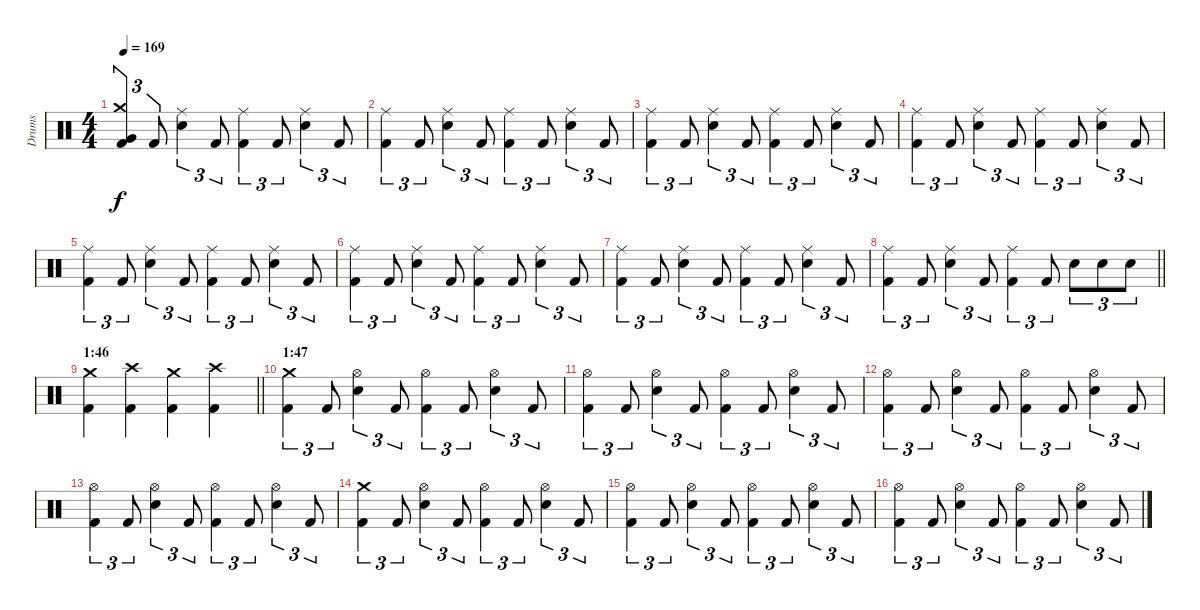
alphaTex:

\track ("Drums" "Drums") {instrument percussion}
\staff {score}
\articulation defaults
\ts (4 4)
\tempo 169
\clef neutral
\ks c
("Very Low Tom (hit)" "Crash medium (hit)" "Kick (hit) 2").4{tu (3 2) dy f} "Kick (hit) 2".8{tu (3 2)} ("Ride (middle)" "Snare (hit) 2").4{tu (3 2)} "Kick (hit) 2".8{tu (3 2)} ("Ride (middle)" "Kick (hit) 2").4{tu (3 2)} "Kick (hit) 2".8{tu (3 2)} ("Ride (middle)" "Snare (hit) 2").4{tu (3 2)} "Kick (hit) 2".8{tu (3 2)} |
("Ride (middle)" "Kick (hit) 2").4{tu (3 2)} "Kick (hit) 2".8{tu (3 2)} ("Ride (middle)" "Snare (hit) 2").4{tu (3 2)} "Kick (hit) 2".8{tu (3 2)} ("Ride (middle)" "Kick (hit) 2").4{tu (3 2)} "Kick (hit) 2".8{tu (3 2)} ("Ride (middle)" "Snare (hit) 2").4{tu (3 2)} "Kick (hit) 2".8{tu (3 2)} |
("Ride (middle)" "Kick (hit) 2").4{tu (3 2)} "Kick (hit) 2".8{tu (3 2)} ("Ride (middle)" "Snare (hit) 2").4{tu (3 2)} "Kick (hit) 2".8{tu (3 2)} ("Ride (middle)" "Kick (hit) 2").4{tu (3 2)} "Kick (hit) 2".8{tu (3 2)} ("Ride (middle)" "Snare (hit) 2").4{tu (3 2)} "Kick (hit) 2".8{tu (3 2)} |
("Ride (middle)" "Kick (hit) 2").4{tu (3 2)} "Kick (hit) 2".8{tu (3 2)} ("Ride (middle)" "Snare (hit) 2").4{tu (3 2)} "Kick (hit) 2".8{tu (3 2)} ("Ride (middle)" "Kick (hit) 2").4{tu (3 2)} "Kick (hit) 2".8{tu (3 2)} ("Ride (middle)" "Snare (hit) 2").4{tu (3 2)} "Kick (hit) 2".8{tu (3 2)} |
("Ride (middle)" "Kick (hit) 2").4{tu (3 2)} "Kick (hit) 2".8{tu (3 2)} ("Ride (middle)" "Snare (hit) 2").4{tu (3 2)} "Kick (hit) 2".8{tu (3 2)} ("Ride (middle)" "Kick (hit) 2").4{tu (3 2)} "Kick (hit) 2".8{tu (3 2)} ("Ride (middle)" "Snare (hit) 2").4{tu (3 2)} "Kick (hit) 2".8{tu (3 2)} |
("Ride (middle)" "Kick (hit) 2").4{tu (3 2)} "Kick (hit) 2".8{tu (3 2)} ("Ride (middle)" "Snare (hit) 2").4{tu (3 2)} "Kick (hit) 2".8{tu (3 2)} ("Ride (middle)" "Kick (hit) 2").4{tu (3 2)} "Kick (hit) 2".8{tu (3 2)} ("Ride (middle)" "Snare (hit) 2").4{tu (3 2)} "Kick (hit) 2".8{tu (3 2)} |
("Ride (middle)" "Kick (hit) 2").4{tu (3 2)} "Kick (hit) 2".8{tu (3 2)} ("Ride (middle)" "Snare (hit) 2").4{tu (3 2)} "Kick (hit) 2".8{tu (3 2)} ("Ride (middle)" "Kick (hit) 2").4{tu (3 2)} "Kick (hit) 2".8{tu (3 2)} ("Ride (middle)" "Snare (hit) 2").4{tu (3 2)} "Kick (hit) 2".8{tu (3 2)} |
\barLineRight lightlight
("Ride (middle)" "Kick (hit) 2").4{tu (3 2)} "Kick (hit) 2".8{tu (3 2)} ("Ride (middle)" "Snare (hit) 2").4{tu (3 2)} "Kick (hit) 2".8{tu (3 2)} ("Ride (middle)" "Kick (hit) 2").4{tu (3 2)} "Kick (hit) 2".8{tu (3 2)} "Snare (hit) 2".8{tu (3 2)} "Snare (hit) 2".8{tu (3 2)} "Snare (hit) 2".8{tu (3 2)} |
\section ("" "1:46")
\barLineRight lightlight
("Crash medium (hit)" "Kick (hit) 2").4 ("Crash high (hit)" "Kick (hit) 2").4 ("Crash medium (hit)" "Kick (hit) 2").4 ("Crash high (hit)" "Kick (hit) 2").4 |
\section ("" "1:47")
("Crash medium (hit)" "Kick (hit) 2").4{tu (3 2)} "Kick (hit) 2".8{tu (3 2)} ("Hi-Hat (open)" "Snare (hit) 2").4{tu (3 2)} "Kick (hit) 2".8{tu (3 2)} ("Hi-Hat (open)" "Kick (hit) 2").4{tu (3 2)} "Kick (hit) 2".8{tu (3 2)} ("Hi-Hat (open)" "Snare (hit) 2").4{tu (3 2)} "Kick (hit) 2".8{tu (3 2)} |
("Hi-Hat (open)" "Kick (hit) 2").4{tu (3 2)} "Kick (hit) 2".8{tu (3 2)} ("Hi-Hat (open)" "Snare (hit) 2").4{tu (3 2)} "Kick (hit) 2".8{tu (3 2)} ("Hi-Hat (open)" "Kick (hit) 2").4{tu (3 2)} "Kick (hit) 2".8{tu (3 2)} ("Hi-Hat (open)" "Snare (hit) 2").4{tu (3 2)} "Kick (hit) 2".8{tu (3 2)} |
("Hi-Hat (open)" "Kick (hit) 2").4{tu (3 2)} "Kick (hit) 2".8{tu (3 2)} ("Hi-Hat (open)" "Snare (hit) 2").4{tu (3 2)} "Kick (hit) 2".8{tu (3 2)} ("Hi-Hat (open)" "Kick (hit) 2").4{tu (3 2)} "Kick (hit) 2".8{tu (3 2)} ("Hi-Hat (open)" "Snare (hit) 2").4{tu (3 2)} "Kick (hit) 2".8{tu (3 2)} |
("Hi-Hat (open)" "Kick (hit) 2").4{tu (3 2)} "Kick (hit) 2".8{tu (3 2)} ("Hi-Hat (open)" "Snare (hit) 2").4{tu (3 2)} "Kick (hit) 2".8{tu (3 2)} ("Hi-Hat (open)" "Kick (hit) 2").4{tu (3 2)} "Kick (hit) 2".8{tu (3 2)} ("Hi-Hat (open)" "Snare (hit) 2").4{tu (3 2)} "Kick (hit) 2".8{tu (3 2)} |
("Crash medium (hit)" "Kick (hit) 2").4{tu (3 2)} "Kick (hit) 2".8{tu (3 2)} ("Hi-Hat (open)" "Snare (hit) 2").4{tu (3 2)} "Kick (hit) 2".8{tu (3 2)} ("Hi-Hat (open)" "Kick (hit) 2").4{tu (3 2)} "Kick (hit) 2".8{tu (3 2)} ("Hi-Hat (open)" "Snare (hit) 2").4{tu (3 2)} "Kick (hit) 2".8{tu (3 2)} |
("Hi-Hat (open)" "Kick (hit) 2").4{tu (3 2)} "Kick (hit) 2".8{tu (3 2)} ("Hi-Hat (open)" "Snare (hit) 2").4{tu (3 2)} "Kick (hit) 2".8{tu (3 2)} ("Hi-Hat (open)" "Kick (hit) 2").4{tu (3 2)} "Kick (hit) 2".8{tu (3 2)} ("Hi-Hat (open)" "Snare (hit) 2").4{tu (3 2)} "Kick (hit) 2".8{tu (3 2)} |
("Hi-Hat (open)" "Kick (hit) 2").4{tu (3 2)} "Kick (hit) 2".8{tu (3 2)} ("Hi-Hat (open)" "Snare (hit) 2").4{tu (3 2)} "Kick (hit) 2".8{tu (3 2)} ("Hi-Hat (open)" "Kick (hit) 2").4{tu (3 2)} "Kick (hit) 2".8{tu (3 2)} ("Hi-Hat (open)" "Snare (hit) 2").4{tu (3 2)} "Kick (hit) 2".8{tu (3 2)}
